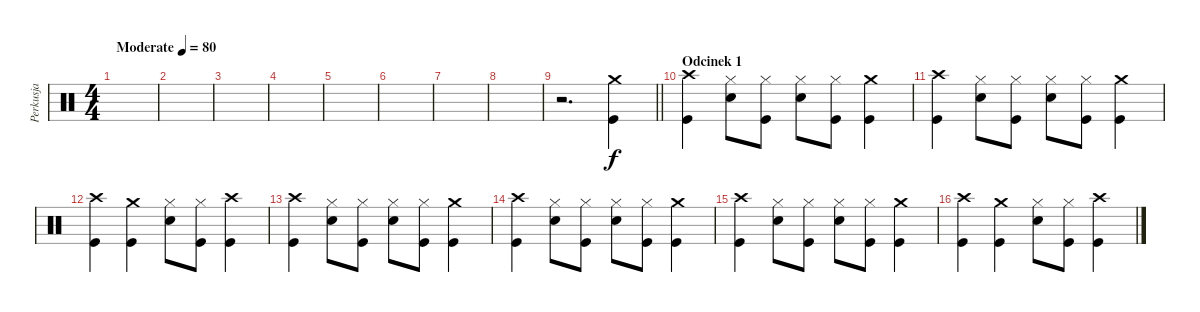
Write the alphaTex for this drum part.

\track ("Perkusja" "Perkusja") {instrument percussion}
\staff {score}
\articulation defaults
\ts (4 4)
\tempo (80 "Moderate")
\clef neutral
\ks c
|
|
|
|
|
|
|
|
\barLineRight lightlight
r.2{d} ("Crash medium (hit)" "Kick (hit)").4 |
\section ("" "Odcinek 1")
("Crash high (hit)" "Kick (hit)").4 ("Snare (hit) 2" "Hi-Hat (closed)").8 ("Kick (hit)" "Hi-Hat (closed)").8 ("Snare (hit) 2" "Hi-Hat (closed)").8 ("Kick (hit)" "Hi-Hat (closed)").8 ("Crash medium (hit)" "Kick (hit)").4 |
("Crash high (hit)" "Kick (hit)").4 ("Snare (hit) 2" "Hi-Hat (closed)").8 ("Kick (hit)" "Hi-Hat (closed)").8 ("Snare (hit) 2" "Hi-Hat (closed)").8 ("Kick (hit)" "Hi-Hat (closed)").8 ("Crash medium (hit)" "Kick (hit)").4 |
("Crash high (hit)" "Kick (hit)").4 ("Crash medium (hit)" "Kick (hit)").4 ("Hi-Hat (closed)" "Snare (hit) 2").8 ("Kick (hit)" "Hi-Hat (closed)").8 ("Kick (hit)" "Crash high (hit)").4 |
("Crash high (hit)" "Kick (hit)").4 ("Snare (hit) 2" "Hi-Hat (closed)").8 ("Kick (hit)" "Hi-Hat (closed)").8 ("Snare (hit) 2" "Hi-Hat (closed)").8 ("Kick (hit)" "Hi-Hat (closed)").8 ("Crash medium (hit)" "Kick (hit)").4 |
("Crash high (hit)" "Kick (hit)").4 ("Snare (hit) 2" "Hi-Hat (closed)").8 ("Kick (hit)" "Hi-Hat (closed)").8 ("Snare (hit) 2" "Hi-Hat (closed)").8 ("Kick (hit)" "Hi-Hat (closed)").8 ("Crash medium (hit)" "Kick (hit)").4 |
("Crash high (hit)" "Kick (hit)").4 ("Snare (hit) 2" "Hi-Hat (closed)").8 ("Kick (hit)" "Hi-Hat (closed)").8 ("Snare (hit) 2" "Hi-Hat (closed)").8 ("Kick (hit)" "Hi-Hat (closed)").8 ("Crash medium (hit)" "Kick (hit)").4 |
("Crash high (hit)" "Kick (hit)").4 ("Crash medium (hit)" "Kick (hit)").4 ("Hi-Hat (closed)" "Snare (hit) 2").8 ("Kick (hit)" "Hi-Hat (closed)").8 ("Kick (hit)" "Crash high (hit)").4
